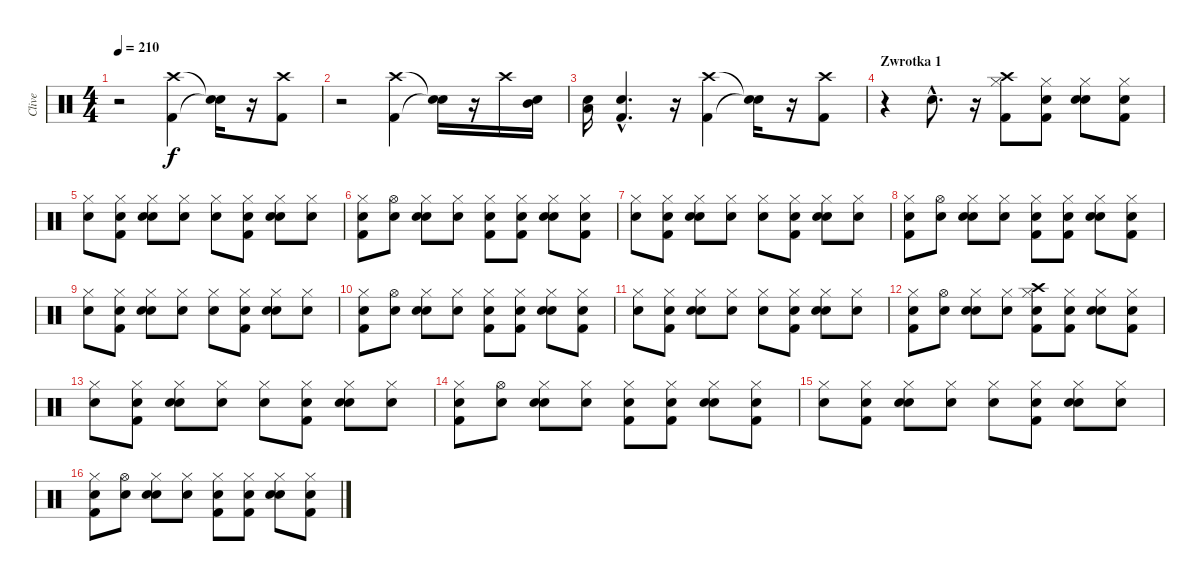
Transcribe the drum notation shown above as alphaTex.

\track ("Clive" "Clive") {instrument percussion}
\staff {score}
\articulation defaults
\ts (4 4)
\tempo 210
\clef neutral
\ks c
r.2{dy f} ("Kick (hit) 2" "Crash high (hit)").4 ("Snare (hit)"{t} "Snare (hit)"{t}).16 r.16 ("Kick (hit) 2" "Crash high (hit)").8 |
r.2 ("Kick (hit) 2" "Crash high (hit)").4 ("Snare (hit)"{t} "Snare (hit)"{t}).16 r.16 "Crash high (hit)".16 ("Snare (hit)" "Mid Tom (hit)").16 |
("Snare (hit)" "Low Tom (hit)").16 ("Snare (hit)"{hac} "Kick (hit) 2"{hac}).4{d} r.16 ("Kick (hit) 2" "Crash high (hit)").4 ("Snare (hit)"{t} "Snare (hit)"{t}).16 r.16 ("Kick (hit) 2" "Crash high (hit)").8 |
\section ("" "Zwrotka 1")
r.4 "Snare (hit) 2"{hac}.8{d} r.16 ("Kick (hit) 2" "Hi-Hat (closed)" "Crash high (hit)").8 ("Snare (hit)" "Kick (hit) 2" "Hi-Hat (closed)").8 ("Snare (hit)" "Snare (hit) 2" "Hi-Hat (closed)").8 ("Snare (hit)" "Kick (hit) 2" "Hi-Hat (closed)").8 |
("Snare (hit)" "Hi-Hat (closed)").8 ("Snare (hit)" "Kick (hit) 2" "Hi-Hat (closed)").8 ("Snare (hit)" "Snare (hit) 2" "Hi-Hat (closed)").8 ("Snare (hit)" "Hi-Hat (closed)").8 ("Snare (hit)" "Hi-Hat (closed)").8 ("Snare (hit)" "Kick (hit) 2" "Hi-Hat (closed)").8 ("Snare (hit)" "Snare (hit) 2" "Hi-Hat (closed)").8 ("Snare (hit)" "Hi-Hat (closed)").8 |
("Snare (hit)" "Kick (hit) 2" "Hi-Hat (closed)").8 ("Snare (hit)" "Hi-Hat (open)").8 ("Snare (hit)" "Snare (hit) 2" "Hi-Hat (closed)").8 ("Snare (hit)" "Hi-Hat (closed)").8 ("Snare (hit)" "Kick (hit) 2" "Hi-Hat (closed)").8 ("Snare (hit)" "Kick (hit) 2" "Hi-Hat (closed)").8 ("Snare (hit)" "Snare (hit) 2" "Hi-Hat (closed)").8 ("Snare (hit)" "Kick (hit) 2" "Hi-Hat (closed)").8 |
("Snare (hit)" "Hi-Hat (closed)").8 ("Snare (hit)" "Kick (hit) 2" "Hi-Hat (closed)").8 ("Snare (hit)" "Snare (hit) 2" "Hi-Hat (closed)").8 ("Snare (hit)" "Hi-Hat (closed)").8 ("Snare (hit)" "Hi-Hat (closed)").8 ("Snare (hit)" "Kick (hit) 2" "Hi-Hat (closed)").8 ("Snare (hit)" "Snare (hit) 2" "Hi-Hat (closed)").8 ("Snare (hit)" "Hi-Hat (closed)").8 |
("Snare (hit)" "Kick (hit) 2" "Hi-Hat (closed)").8 ("Snare (hit)" "Hi-Hat (open)").8 ("Snare (hit)" "Snare (hit) 2" "Hi-Hat (closed)").8 ("Snare (hit)" "Hi-Hat (closed)").8 ("Snare (hit)" "Kick (hit) 2" "Hi-Hat (closed)").8 ("Snare (hit)" "Kick (hit) 2" "Hi-Hat (closed)").8 ("Snare (hit)" "Snare (hit) 2" "Hi-Hat (closed)").8 ("Snare (hit)" "Kick (hit) 2" "Hi-Hat (closed)").8 |
("Snare (hit)" "Hi-Hat (closed)").8 ("Snare (hit)" "Kick (hit) 2" "Hi-Hat (closed)").8 ("Snare (hit)" "Snare (hit) 2" "Hi-Hat (closed)").8 ("Snare (hit)" "Hi-Hat (closed)").8 ("Snare (hit)" "Hi-Hat (closed)").8 ("Snare (hit)" "Kick (hit) 2" "Hi-Hat (closed)").8 ("Snare (hit)" "Snare (hit) 2" "Hi-Hat (closed)").8 ("Snare (hit)" "Hi-Hat (closed)").8 |
("Snare (hit)" "Kick (hit) 2" "Hi-Hat (closed)").8 ("Snare (hit)" "Hi-Hat (open)").8 ("Snare (hit)" "Snare (hit) 2" "Hi-Hat (closed)").8 ("Snare (hit)" "Hi-Hat (closed)").8 ("Snare (hit)" "Kick (hit) 2" "Hi-Hat (closed)").8 ("Snare (hit)" "Kick (hit) 2" "Hi-Hat (closed)").8 ("Snare (hit)" "Snare (hit) 2" "Hi-Hat (closed)").8 ("Snare (hit)" "Kick (hit) 2" "Hi-Hat (closed)").8 |
("Snare (hit)" "Hi-Hat (closed)").8 ("Snare (hit)" "Kick (hit) 2" "Hi-Hat (closed)").8 ("Snare (hit)" "Snare (hit) 2" "Hi-Hat (closed)").8 ("Snare (hit)" "Hi-Hat (closed)").8 ("Snare (hit)" "Hi-Hat (closed)").8 ("Snare (hit)" "Kick (hit) 2" "Hi-Hat (closed)").8 ("Snare (hit)" "Snare (hit) 2" "Hi-Hat (closed)").8 ("Snare (hit)" "Hi-Hat (closed)").8 |
("Snare (hit)" "Kick (hit) 2" "Hi-Hat (closed)").8 ("Snare (hit)" "Hi-Hat (open)").8 ("Snare (hit)" "Snare (hit) 2" "Hi-Hat (closed)").8 ("Snare (hit)" "Hi-Hat (closed)").8 ("Snare (hit)" "Kick (hit) 2" "Hi-Hat (closed)" "Crash high (hit)").8 ("Snare (hit)" "Kick (hit) 2" "Hi-Hat (closed)").8 ("Snare (hit)" "Snare (hit) 2" "Hi-Hat (closed)").8 ("Snare (hit)" "Kick (hit) 2" "Hi-Hat (closed)").8 |
("Snare (hit)" "Hi-Hat (closed)").8 ("Snare (hit)" "Kick (hit) 2" "Hi-Hat (closed)").8 ("Snare (hit)" "Snare (hit) 2" "Hi-Hat (closed)").8 ("Snare (hit)" "Hi-Hat (closed)").8 ("Snare (hit)" "Hi-Hat (closed)").8 ("Snare (hit)" "Kick (hit) 2" "Hi-Hat (closed)").8 ("Snare (hit)" "Snare (hit) 2" "Hi-Hat (closed)").8 ("Snare (hit)" "Hi-Hat (closed)").8 |
("Snare (hit)" "Kick (hit) 2" "Hi-Hat (closed)").8 ("Snare (hit)" "Hi-Hat (open)").8 ("Snare (hit)" "Snare (hit) 2" "Hi-Hat (closed)").8 ("Snare (hit)" "Hi-Hat (closed)").8 ("Snare (hit)" "Kick (hit) 2" "Hi-Hat (closed)").8 ("Snare (hit)" "Kick (hit) 2" "Hi-Hat (closed)").8 ("Snare (hit)" "Snare (hit) 2" "Hi-Hat (closed)").8 ("Snare (hit)" "Kick (hit) 2" "Hi-Hat (closed)").8 |
("Snare (hit)" "Hi-Hat (closed)").8 ("Snare (hit)" "Kick (hit) 2" "Hi-Hat (closed)").8 ("Snare (hit)" "Snare (hit) 2" "Hi-Hat (closed)").8 ("Snare (hit)" "Hi-Hat (closed)").8 ("Snare (hit)" "Hi-Hat (closed)").8 ("Snare (hit)" "Kick (hit) 2" "Hi-Hat (closed)").8 ("Snare (hit)" "Snare (hit) 2" "Hi-Hat (closed)").8 ("Snare (hit)" "Hi-Hat (closed)").8 |
("Snare (hit)" "Kick (hit) 2" "Hi-Hat (closed)").8 ("Snare (hit)" "Hi-Hat (open)").8 ("Snare (hit)" "Snare (hit) 2" "Hi-Hat (closed)").8 ("Snare (hit)" "Hi-Hat (closed)").8 ("Snare (hit)" "Kick (hit) 2" "Hi-Hat (closed)").8 ("Snare (hit)" "Kick (hit) 2" "Hi-Hat (closed)").8 ("Snare (hit)" "Snare (hit) 2" "Hi-Hat (closed)").8 ("Snare (hit)" "Kick (hit) 2" "Hi-Hat (closed)").8
